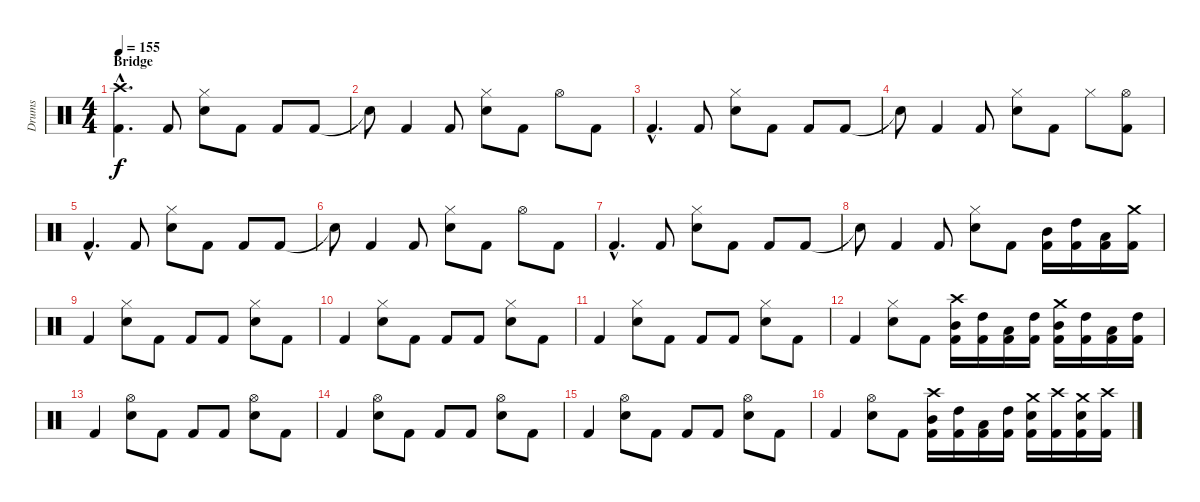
\track ("Drums" "Drums") {instrument percussion}
\staff {score}
\articulation defaults
\ts (4 4)
\section ("" "Bridge")
\tempo 155
\clef neutral
\ks c
("Crash high (hit)"{hac} "Kick (hit) 2"{hac}).4{d dy f} "Kick (hit) 2".8 ("Hi-Hat (closed)" "Snare (hit) 2").8 "Kick (hit) 2".8 "Kick (hit) 2".8 "Kick (hit) 2".8 |
"Snare (hit)"{t}.8 "Kick (hit) 2".4 "Kick (hit) 2".8 ("Hi-Hat (closed)" "Snare (hit) 2").8 "Kick (hit) 2".8 "Hi-Hat (open)".8 "Kick (hit) 2".8 |
"Kick (hit) 2"{hac}.4{d} "Kick (hit) 2".8 ("Hi-Hat (closed)" "Snare (hit) 2").8 "Kick (hit) 2".8 "Kick (hit) 2".8 "Kick (hit) 2".8 |
"Snare (hit)"{t}.8 "Kick (hit) 2".4 "Kick (hit) 2".8 ("Hi-Hat (closed)" "Snare (hit) 2").8 "Kick (hit) 2".8 "Hi-Hat (closed)".8 ("Hi-Hat (open)" "Kick (hit) 2").8 |
"Kick (hit) 2"{hac}.4{d} "Kick (hit) 2".8 ("Hi-Hat (closed)" "Snare (hit) 2").8 "Kick (hit) 2".8 "Kick (hit) 2".8 "Kick (hit) 2".8 |
"Snare (hit)"{t}.8 "Kick (hit) 2".4 "Kick (hit) 2".8 ("Hi-Hat (closed)" "Snare (hit) 2").8 "Kick (hit) 2".8 "Hi-Hat (open)".8 "Kick (hit) 2".8 |
"Kick (hit) 2"{hac}.4{d} "Kick (hit) 2".8 ("Hi-Hat (closed)" "Snare (hit) 2").8 "Kick (hit) 2".8 "Kick (hit) 2".8 "Kick (hit) 2".8 |
"Snare (hit)"{t}.8 "Kick (hit) 2".4 "Kick (hit) 2".8 ("Hi-Hat (closed)" "Snare (hit) 2").8 "Kick (hit) 2".8 ("Mid Tom (hit)" "Kick (hit) 2").16 ("High Tom (hit)" "Kick (hit) 2").16 ("Low Tom (hit)" "Kick (hit) 2").16 ("Crash medium (hit)" "Kick (hit) 2").16 |
"Kick (hit) 2".4 ("Hi-Hat (closed)" "Snare (hit) 2").8 "Kick (hit) 2".8 "Kick (hit) 2".8 "Kick (hit) 2".8 ("Hi-Hat (closed)" "Snare (hit) 2").8 "Kick (hit) 2".8 |
"Kick (hit) 2".4 ("Hi-Hat (closed)" "Snare (hit) 2").8 "Kick (hit) 2".8 "Kick (hit) 2".8 "Kick (hit) 2".8 ("Hi-Hat (closed)" "Snare (hit) 2").8 "Kick (hit) 2".8 |
"Kick (hit) 2".4 ("Hi-Hat (closed)" "Snare (hit) 2").8 "Kick (hit) 2".8 "Kick (hit) 2".8 "Kick (hit) 2".8 ("Hi-Hat (closed)" "Snare (hit) 2").8 "Kick (hit) 2".8 |
"Kick (hit) 2".4 ("Hi-Hat (closed)" "Snare (hit) 2").8 "Kick (hit) 2".8 ("Crash high (hit)" "Kick (hit) 2" "Mid Tom (hit)").16 ("Kick (hit) 2" "High Tom (hit)").16 ("Kick (hit) 2" "Low Tom (hit)").16 ("Kick (hit) 2" "High Tom (hit)").16 ("Crash medium (hit)" "Kick (hit) 2" "Mid Tom (hit)").16 ("Kick (hit) 2" "High Tom (hit)").16 ("Kick (hit) 2" "Low Tom (hit)").16 ("Kick (hit) 2" "High Tom (hit)").16 |
"Kick (hit) 2".4 ("Hi-Hat (open)" "Snare (hit) 2").8 "Kick (hit) 2".8 "Kick (hit) 2".8 "Kick (hit) 2".8 ("Hi-Hat (open)" "Snare (hit) 2").8 "Kick (hit) 2".8 |
"Kick (hit) 2".4 ("Hi-Hat (open)" "Snare (hit) 2").8 "Kick (hit) 2".8 "Kick (hit) 2".8 "Kick (hit) 2".8 ("Hi-Hat (open)" "Snare (hit) 2").8 "Kick (hit) 2".8 |
"Kick (hit) 2".4 ("Hi-Hat (open)" "Snare (hit) 2").8 "Kick (hit) 2".8 "Kick (hit) 2".8 "Kick (hit) 2".8 ("Hi-Hat (open)" "Snare (hit) 2").8 "Kick (hit) 2".8 |
"Kick (hit) 2".4 ("Hi-Hat (open)" "Snare (hit) 2").8 "Kick (hit) 2".8 ("Crash high (hit)" "Kick (hit) 2" "Mid Tom (hit)").16 ("Kick (hit) 2" "High Tom (hit)").16 ("Kick (hit) 2" "Low Tom (hit)").16 ("Kick (hit) 2" "High Tom (hit)").16 ("Crash medium (hit)" "Kick (hit) 2" "Snare (hit) 2").16 ("Crash high (hit)" "Kick (hit) 2").16 ("Crash medium (hit)" "Kick (hit) 2" "Snare (hit) 2").16 ("Crash high (hit)" "Kick (hit) 2").16
